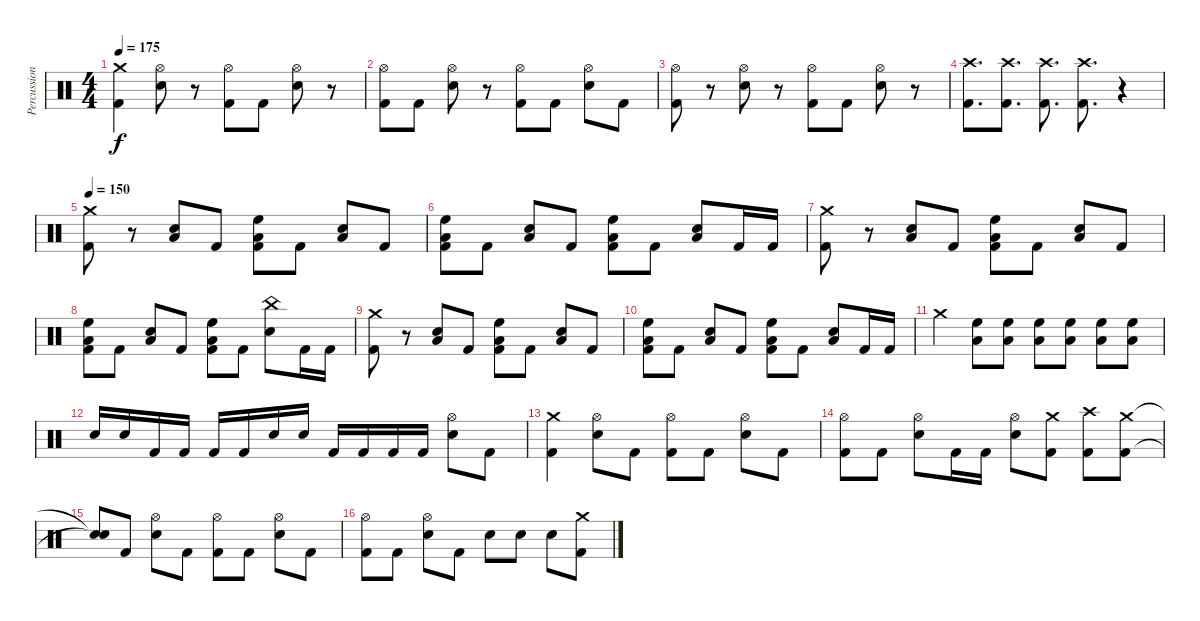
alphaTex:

\track ("Percussion" "Percussion") {instrument percussion}
\staff {score}
\articulation defaults
\ts (4 4)
\tempo 175
\clef neutral
\ks c
("Crash medium (hit)" "Kick (hit) 2").4{dy f} ("Hi-Hat (open)" "Snare (hit) 2").8 r.8 ("Hi-Hat (open)" "Kick (hit) 2").8 "Kick (hit) 2".8 ("Hi-Hat (open)" "Snare (hit) 2").8 r.8 |
("Hi-Hat (open)" "Kick (hit) 2").8 "Kick (hit) 2".8 ("Hi-Hat (open)" "Snare (hit) 2").8 r.8 ("Hi-Hat (open)" "Kick (hit) 2").8 "Kick (hit) 2".8 ("Hi-Hat (open)" "Snare (hit) 2").8 "Kick (hit) 2".8 |
("Hi-Hat (open)" "Kick (hit) 2").8 r.8 ("Hi-Hat (open)" "Snare (hit) 2").8 r.8 ("Hi-Hat (open)" "Kick (hit) 2").8 "Kick (hit) 2".8 ("Hi-Hat (open)" "Snare (hit) 2").8 r.8 |
("Crash high (hit)" "Kick (hit) 2").8{d} ("Crash high (hit)" "Kick (hit) 2").8{d} ("Crash high (hit)" "Kick (hit) 2").8{d} ("Crash high (hit)" "Kick (hit) 2").8{d} r.4 |
\tempo 150
("Crash medium (hit)" "Kick (hit) 2").8 r.8 ("Low Floor Tom (hit)" "Snare (hit) 2").8 "Kick (hit) 2".8 ("Low Floor Tom (hit)" "High Floor Tom (hit)" "Kick (hit) 2").8 "Kick (hit) 2".8 ("Low Floor Tom (hit)" "Snare (hit) 2").8 "Kick (hit) 2".8 |
("Low Floor Tom (hit)" "High Floor Tom (hit)" "Kick (hit) 2").8 "Kick (hit) 2".8 ("Low Floor Tom (hit)" "Snare (hit) 2").8 "Kick (hit) 2".8 ("Low Floor Tom (hit)" "High Floor Tom (hit)" "Kick (hit) 2").8 "Kick (hit) 2".8 ("Low Floor Tom (hit)" "Snare (hit) 2").8 "Kick (hit) 2".16 "Kick (hit) 2".16 |
("Crash medium (hit)" "Kick (hit) 2").8 r.8 ("Low Floor Tom (hit)" "Snare (hit) 2").8 "Kick (hit) 2".8 ("Low Floor Tom (hit)" "High Floor Tom (hit)" "Kick (hit) 2").8 "Kick (hit) 2".8 ("Low Floor Tom (hit)" "Snare (hit) 2").8 "Kick (hit) 2".8 |
("Low Floor Tom (hit)" "High Floor Tom (hit)" "Kick (hit) 2").8 "Kick (hit) 2".8 ("Low Floor Tom (hit)" "Snare (hit) 2").8 "Kick (hit) 2".8 ("Low Floor Tom (hit)" "High Floor Tom (hit)" "Kick (hit) 2").8 "Kick (hit) 2".8 ("China (hit)" "Snare (hit) 2").8 "Kick (hit) 2".16 "Kick (hit) 2".16 |
("Crash medium (hit)" "Kick (hit) 2").8 r.8 ("Low Floor Tom (hit)" "Snare (hit) 2").8 "Kick (hit) 2".8 ("Low Floor Tom (hit)" "High Floor Tom (hit)" "Kick (hit) 2").8 "Kick (hit) 2".8 ("Low Floor Tom (hit)" "Snare (hit) 2").8 "Kick (hit) 2".8 |
("Low Floor Tom (hit)" "High Floor Tom (hit)" "Kick (hit) 2").8 "Kick (hit) 2".8 ("Low Floor Tom (hit)" "Snare (hit) 2").8 "Kick (hit) 2".8 ("Low Floor Tom (hit)" "High Floor Tom (hit)" "Kick (hit) 2").8 "Kick (hit) 2".8 ("Low Floor Tom (hit)" "Snare (hit) 2").8 "Kick (hit) 2".16 "Kick (hit) 2".16 |
"Crash medium (hit)".4 ("Low Floor Tom (hit)" "High Floor Tom (hit)").8 ("Low Floor Tom (hit)" "High Floor Tom (hit)").8 ("Low Floor Tom (hit)" "High Floor Tom (hit)").8 ("Low Floor Tom (hit)" "High Floor Tom (hit)").8 ("Low Floor Tom (hit)" "High Floor Tom (hit)").8 ("Low Floor Tom (hit)" "High Floor Tom (hit)").8 |
"Snare (hit) 2".16 "Snare (hit) 2".16 "Kick (hit) 2".16 "Kick (hit) 2".16 "Kick (hit) 2".16 "Kick (hit) 2".16 "Snare (hit) 2".16 "Snare (hit) 2".16 "Kick (hit) 2".16 "Kick (hit) 2".16 "Kick (hit) 2".16 "Kick (hit) 2".16 ("Hi-Hat (open)" "Snare (hit) 2").8 "Kick (hit) 2".8 |
("Crash medium (hit)" "Kick (hit) 2").4 ("Hi-Hat (open)" "Snare (hit) 2").8 "Kick (hit) 2".8 ("Hi-Hat (open)" "Kick (hit) 2").8 "Kick (hit) 2".8 ("Hi-Hat (open)" "Snare (hit) 2").8 "Kick (hit) 2".8 |
("Hi-Hat (open)" "Kick (hit) 2").8 "Kick (hit) 2".8 ("Hi-Hat (open)" "Snare (hit) 2").8 "Kick (hit) 2".16 "Kick (hit) 2".16 ("Hi-Hat (open)" "Snare (hit) 2").8 ("Crash medium (hit)" "Kick (hit) 2").8 ("Crash high (hit)" "Kick (hit) 2").8 ("Crash medium (hit)" "Kick (hit) 2").8 |
("Snare (hit)"{t} "Snare (hit)"{t}).8 "Kick (hit) 2".8 ("Hi-Hat (open)" "Snare (hit) 2").8 "Kick (hit) 2".8 ("Hi-Hat (open)" "Kick (hit) 2").8 "Kick (hit) 2".8 ("Hi-Hat (open)" "Snare (hit) 2").8 "Kick (hit) 2".8 |
("Hi-Hat (open)" "Kick (hit) 2").8 "Kick (hit) 2".8 ("Hi-Hat (open)" "Snare (hit) 2").8 "Kick (hit) 2".8 "Snare (hit) 2".8 "Snare (hit) 2".8 "Snare (hit) 2".8 ("Crash medium (hit)" "Kick (hit) 2").8
